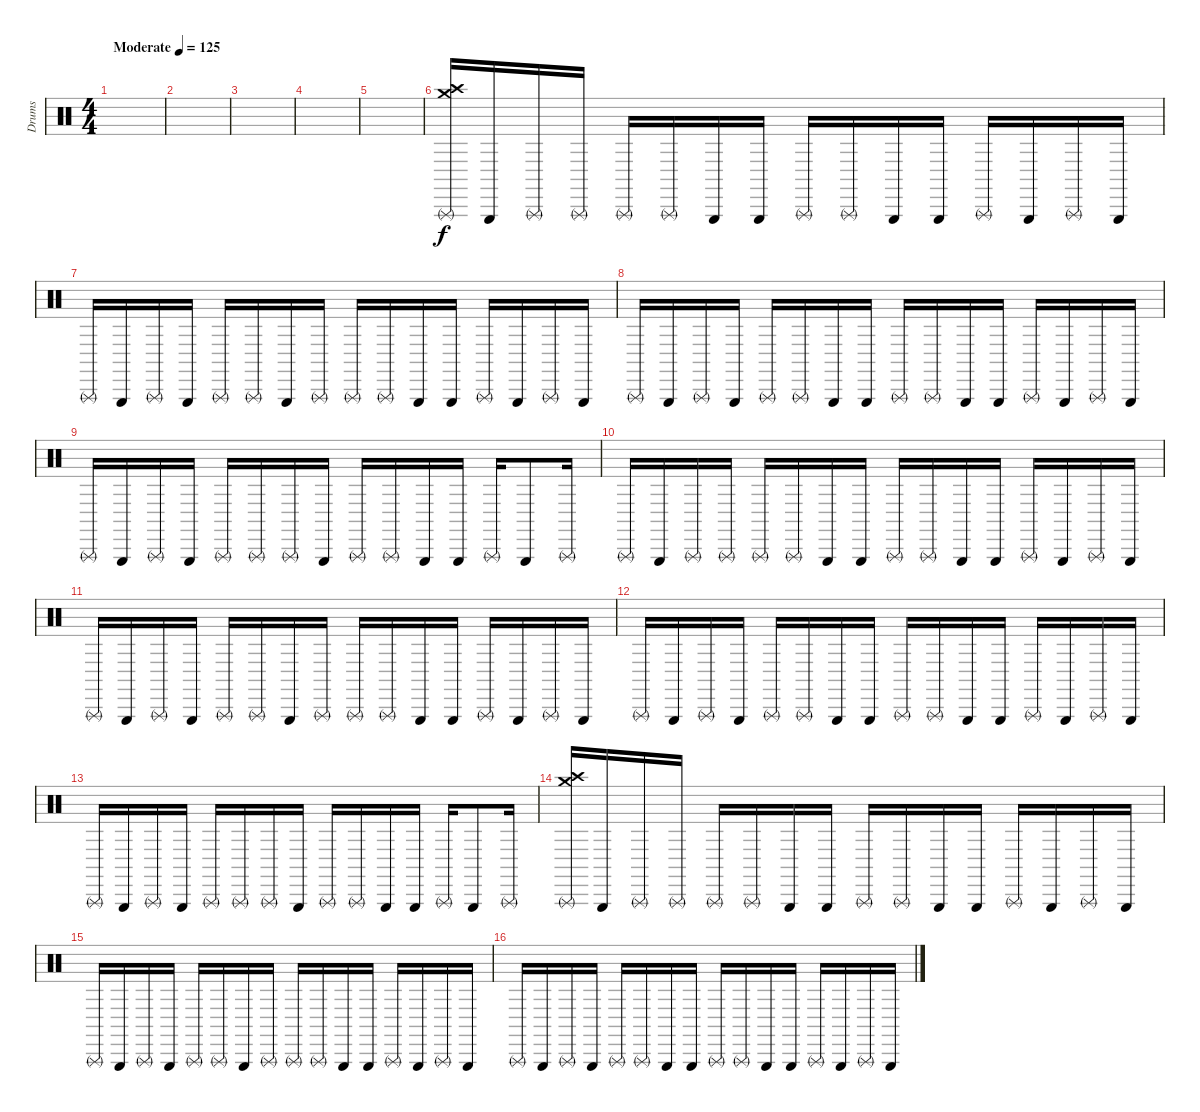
\track ("Drums" "Drums") {instrument percussion}
\staff {score}
\articulation defaults
\ts (4 4)
\tempo (125 "Moderate")
\clef neutral
\ks c
|
|
|
|
|
("Triangle (rnute)" "Crash high (hit)" "Crash medium (hit)").16 "Triangle (hit)".16 "Triangle (rnute)".16 "Triangle (rnute)".16 "Triangle (rnute)".16 "Triangle (rnute)".16 "Triangle (hit)".16 "Triangle (hit)".16 "Triangle (rnute)".16 "Triangle (rnute)".16 "Triangle (hit)".16 "Triangle (hit)".16 "Triangle (rnute)".16 "Triangle (hit)".16 "Triangle (rnute)".16 "Triangle (hit)".16 |
"Triangle (rnute)".16 "Triangle (hit)".16 "Triangle (rnute)".16 "Triangle (hit)".16 "Triangle (rnute)".16 "Triangle (rnute)".16 "Triangle (hit)".16 "Triangle (rnute)".16 "Triangle (rnute)".16 "Triangle (rnute)".16 "Triangle (hit)".16 "Triangle (hit)".16 "Triangle (rnute)".16 "Triangle (hit)".16 "Triangle (rnute)".16 "Triangle (hit)".16 |
"Triangle (rnute)".16 "Triangle (hit)".16 "Triangle (rnute)".16 "Triangle (hit)".16 "Triangle (rnute)".16 "Triangle (rnute)".16 "Triangle (hit)".16 "Triangle (hit)".16 "Triangle (rnute)".16 "Triangle (rnute)".16 "Triangle (hit)".16 "Triangle (hit)".16 "Triangle (rnute)".16 "Triangle (hit)".16 "Triangle (rnute)".16 "Triangle (hit)".16 |
"Triangle (rnute)".16 "Triangle (hit)".16 "Triangle (rnute)".16 "Triangle (hit)".16 "Triangle (rnute)".16 "Triangle (rnute)".16 "Triangle (rnute)".16 "Triangle (hit)".16 "Triangle (rnute)".16 "Triangle (rnute)".16 "Triangle (hit)".16 "Triangle (hit)".16 "Triangle (rnute)".16 "Triangle (hit)".8 "Triangle (rnute)".16 |
"Triangle (rnute)".16 "Triangle (hit)".16 "Triangle (rnute)".16 "Triangle (rnute)".16 "Triangle (rnute)".16 "Triangle (rnute)".16 "Triangle (hit)".16 "Triangle (hit)".16 "Triangle (rnute)".16 "Triangle (rnute)".16 "Triangle (hit)".16 "Triangle (hit)".16 "Triangle (rnute)".16 "Triangle (hit)".16 "Triangle (rnute)".16 "Triangle (hit)".16 |
"Triangle (rnute)".16 "Triangle (hit)".16 "Triangle (rnute)".16 "Triangle (hit)".16 "Triangle (rnute)".16 "Triangle (rnute)".16 "Triangle (hit)".16 "Triangle (rnute)".16 "Triangle (rnute)".16 "Triangle (rnute)".16 "Triangle (hit)".16 "Triangle (hit)".16 "Triangle (rnute)".16 "Triangle (hit)".16 "Triangle (rnute)".16 "Triangle (hit)".16 |
"Triangle (rnute)".16 "Triangle (hit)".16 "Triangle (rnute)".16 "Triangle (hit)".16 "Triangle (rnute)".16 "Triangle (rnute)".16 "Triangle (hit)".16 "Triangle (hit)".16 "Triangle (rnute)".16 "Triangle (rnute)".16 "Triangle (hit)".16 "Triangle (hit)".16 "Triangle (rnute)".16 "Triangle (hit)".16 "Triangle (rnute)".16 "Triangle (hit)".16 |
"Triangle (rnute)".16 "Triangle (hit)".16 "Triangle (rnute)".16 "Triangle (hit)".16 "Triangle (rnute)".16 "Triangle (rnute)".16 "Triangle (rnute)".16 "Triangle (hit)".16 "Triangle (rnute)".16 "Triangle (rnute)".16 "Triangle (hit)".16 "Triangle (hit)".16 "Triangle (rnute)".16 "Triangle (hit)".8 "Triangle (rnute)".16 |
("Triangle (rnute)" "Crash high (hit)" "Crash medium (hit)").16 "Triangle (hit)".16 "Triangle (rnute)".16 "Triangle (rnute)".16 "Triangle (rnute)".16 "Triangle (rnute)".16 "Triangle (hit)".16 "Triangle (hit)".16 "Triangle (rnute)".16 "Triangle (rnute)".16 "Triangle (hit)".16 "Triangle (hit)".16 "Triangle (rnute)".16 "Triangle (hit)".16 "Triangle (rnute)".16 "Triangle (hit)".16 |
"Triangle (rnute)".16 "Triangle (hit)".16 "Triangle (rnute)".16 "Triangle (hit)".16 "Triangle (rnute)".16 "Triangle (rnute)".16 "Triangle (hit)".16 "Triangle (rnute)".16 "Triangle (rnute)".16 "Triangle (rnute)".16 "Triangle (hit)".16 "Triangle (hit)".16 "Triangle (rnute)".16 "Triangle (hit)".16 "Triangle (rnute)".16 "Triangle (hit)".16 |
"Triangle (rnute)".16 "Triangle (hit)".16 "Triangle (rnute)".16 "Triangle (hit)".16 "Triangle (rnute)".16 "Triangle (rnute)".16 "Triangle (hit)".16 "Triangle (hit)".16 "Triangle (rnute)".16 "Triangle (rnute)".16 "Triangle (hit)".16 "Triangle (hit)".16 "Triangle (rnute)".16 "Triangle (hit)".16 "Triangle (rnute)".16 "Triangle (hit)".16
